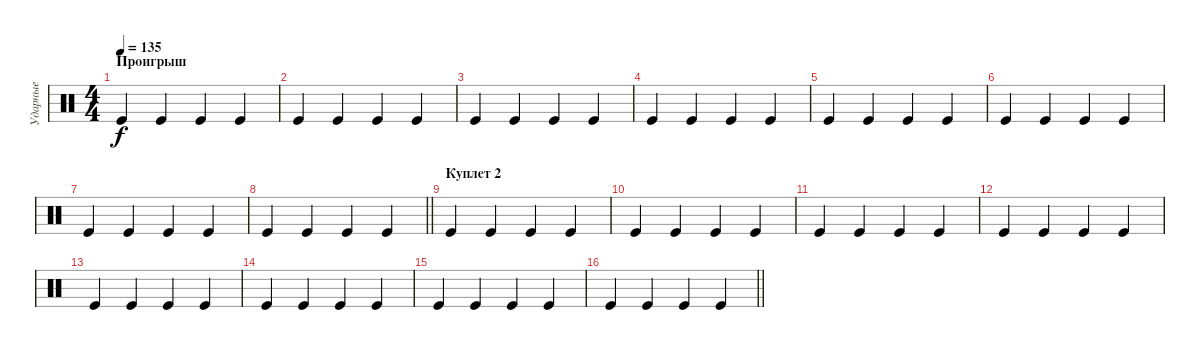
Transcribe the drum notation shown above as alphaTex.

\track ("Ударные" "Ударные") {instrument percussion}
\staff {score}
\articulation defaults
\ts (4 4)
\section ("" "Проигрыш")
\tempo 135
\clef neutral
\ks c "Kick (hit)".4{dy f} "Kick (hit)".4 "Kick (hit)".4 "Kick (hit)".4
|
"Kick (hit)".4 "Kick (hit)".4 "Kick (hit)".4 "Kick (hit)".4 |
"Kick (hit)".4 "Kick (hit)".4 "Kick (hit)".4 "Kick (hit)".4 |
"Kick (hit)".4 "Kick (hit)".4 "Kick (hit)".4 "Kick (hit)".4 |
"Kick (hit)".4 "Kick (hit)".4 "Kick (hit)".4 "Kick (hit)".4 |
"Kick (hit)".4 "Kick (hit)".4 "Kick (hit)".4 "Kick (hit)".4 |
"Kick (hit)".4 "Kick (hit)".4 "Kick (hit)".4 "Kick (hit)".4 |
\barLineRight lightlight "Kick (hit)".4 "Kick (hit)".4 "Kick (hit)".4 "Kick (hit)".4
|
\section ("" "Куплет 2")
"Kick (hit)".4 "Kick (hit)".4 "Kick (hit)".4 "Kick (hit)".4 |
"Kick (hit)".4 "Kick (hit)".4 "Kick (hit)".4 "Kick (hit)".4 |
"Kick (hit)".4 "Kick (hit)".4 "Kick (hit)".4 "Kick (hit)".4 |
"Kick (hit)".4 "Kick (hit)".4 "Kick (hit)".4 "Kick (hit)".4 |
"Kick (hit)".4 "Kick (hit)".4 "Kick (hit)".4 "Kick (hit)".4 |
"Kick (hit)".4 "Kick (hit)".4 "Kick (hit)".4 "Kick (hit)".4 |
"Kick (hit)".4 "Kick (hit)".4 "Kick (hit)".4 "Kick (hit)".4 |
\barLineRight lightlight "Kick (hit)".4 "Kick (hit)".4 "Kick (hit)".4 "Kick (hit)".4
